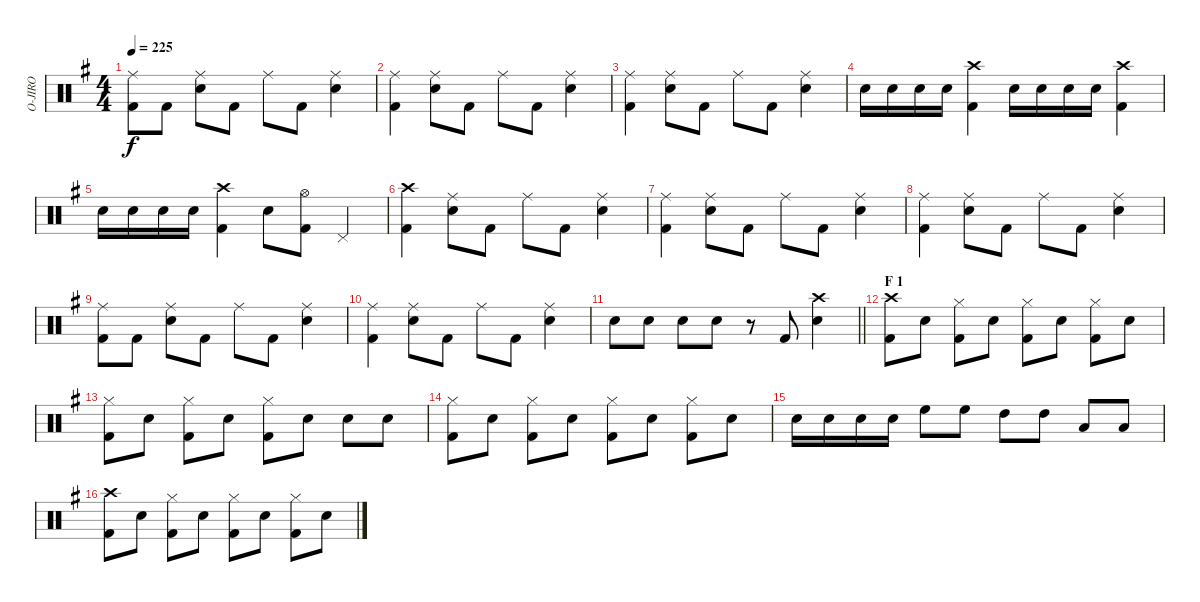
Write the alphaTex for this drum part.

\track ("O-JIRO" "O-JIRO") {instrument percussion}
\staff {score}
\articulation defaults
\ts (4 4)
\tempo 225
\clef neutral
\ks g
("Ride (middle)" "Kick (hit) 2").8{dy f} "Kick (hit) 2".8 ("Ride (middle)" "Snare (hit) 2").8 "Kick (hit) 2".8 "Ride (middle)".8 "Kick (hit) 2".8 ("Ride (middle)" "Snare (hit) 2").4 |
("Ride (middle)" "Kick (hit) 2").4 ("Ride (middle)" "Snare (hit) 2").8 "Kick (hit) 2".8 "Ride (middle)".8 "Kick (hit) 2".8 ("Ride (middle)" "Snare (hit) 2").4 |
("Ride (middle)" "Kick (hit) 2").4 ("Ride (middle)" "Snare (hit) 2").8 "Kick (hit) 2".8 "Ride (middle)".8 "Kick (hit) 2".8 ("Ride (middle)" "Snare (hit) 2").4 |
"Snare (hit) 2".16 "Snare (hit) 2".16 "Snare (hit) 2".16 "Snare (hit) 2".16 ("Crash high (hit)" "Kick (hit) 2").4 "Snare (hit) 2".16 "Snare (hit) 2".16 "Snare (hit) 2".16 "Snare (hit) 2".16 ("Crash high (hit)" "Kick (hit) 2").4 |
"Snare (hit) 2".16 "Snare (hit) 2".16 "Snare (hit) 2".16 "Snare (hit) 2".16 ("Crash high (hit)" "Kick (hit) 2").4 "Snare (hit) 2".8 ("Hi-Hat (open)" "Kick (hit) 2").8 "Pedal Hi-Hat (hit)".4 |
("Crash high (hit)" "Kick (hit) 2").4 ("Ride (middle)" "Snare (hit) 2").8 "Kick (hit) 2".8 "Ride (middle)".8 "Kick (hit) 2".8 ("Ride (middle)" "Snare (hit) 2").4 |
("Ride (middle)" "Kick (hit) 2").4 ("Ride (middle)" "Snare (hit) 2").8 "Kick (hit) 2".8 "Ride (middle)".8 "Kick (hit) 2".8 ("Ride (middle)" "Snare (hit) 2").4 |
("Ride (middle)" "Kick (hit) 2").4 ("Ride (middle)" "Snare (hit) 2").8 "Kick (hit) 2".8 "Ride (middle)".8 "Kick (hit) 2".8 ("Ride (middle)" "Snare (hit) 2").4 |
("Ride (middle)" "Kick (hit) 2").8 "Kick (hit) 2".8 ("Ride (middle)" "Snare (hit) 2").8 "Kick (hit) 2".8 "Ride (middle)".8 "Kick (hit) 2".8 ("Ride (middle)" "Snare (hit) 2").4 |
("Ride (middle)" "Kick (hit) 2").4 ("Ride (middle)" "Snare (hit) 2").8 "Kick (hit) 2".8 "Ride (middle)".8 "Kick (hit) 2".8 ("Ride (middle)" "Snare (hit) 2").4 |
\barLineRight lightlight "Snare (hit) 2".8 "Snare (hit) 2".8 "Snare (hit) 2".8 "Snare (hit) 2".8
r.8 "Kick (hit) 2".8 ("Crash high (hit)" "Snare (hit) 2").4 |
\section ("" "F 1")
("Crash high (hit)" "Kick (hit) 2").8 "Snare (hit) 2".8 ("Hi-Hat (closed)" "Kick (hit) 2").8 "Snare (hit) 2".8 ("Hi-Hat (closed)" "Kick (hit) 2").8 "Snare (hit) 2".8 ("Hi-Hat (closed)" "Kick (hit) 2").8 "Snare (hit) 2".8 |
("Hi-Hat (closed)" "Kick (hit) 2").8 "Snare (hit) 2".8 ("Hi-Hat (closed)" "Kick (hit) 2").8 "Snare (hit) 2".8 ("Hi-Hat (closed)" "Kick (hit) 2").8 "Snare (hit) 2".8 "Snare (hit) 2".8 "Snare (hit) 2".8 |
("Hi-Hat (closed)" "Kick (hit) 2").8 "Snare (hit) 2".8 ("Hi-Hat (closed)" "Kick (hit) 2").8 "Snare (hit) 2".8 ("Hi-Hat (closed)" "Kick (hit) 2").8 "Snare (hit) 2".8 ("Hi-Hat (closed)" "Kick (hit) 2").8 "Snare (hit) 2".8 |
"Snare (hit) 2".16 "Snare (hit) 2".16 "Snare (hit) 2".16 "Snare (hit) 2".16 "High Floor Tom (hit)".8 "High Floor Tom (hit)".8 "High Tom (hit)".8 "High Tom (hit)".8 "Low Tom (hit)".8 "Low Tom (hit)".8 |
("Crash high (hit)" "Kick (hit) 2").8 "Snare (hit) 2".8 ("Hi-Hat (closed)" "Kick (hit) 2").8 "Snare (hit) 2".8 ("Hi-Hat (closed)" "Kick (hit) 2").8 "Snare (hit) 2".8 ("Hi-Hat (closed)" "Kick (hit) 2").8 "Snare (hit) 2".8
